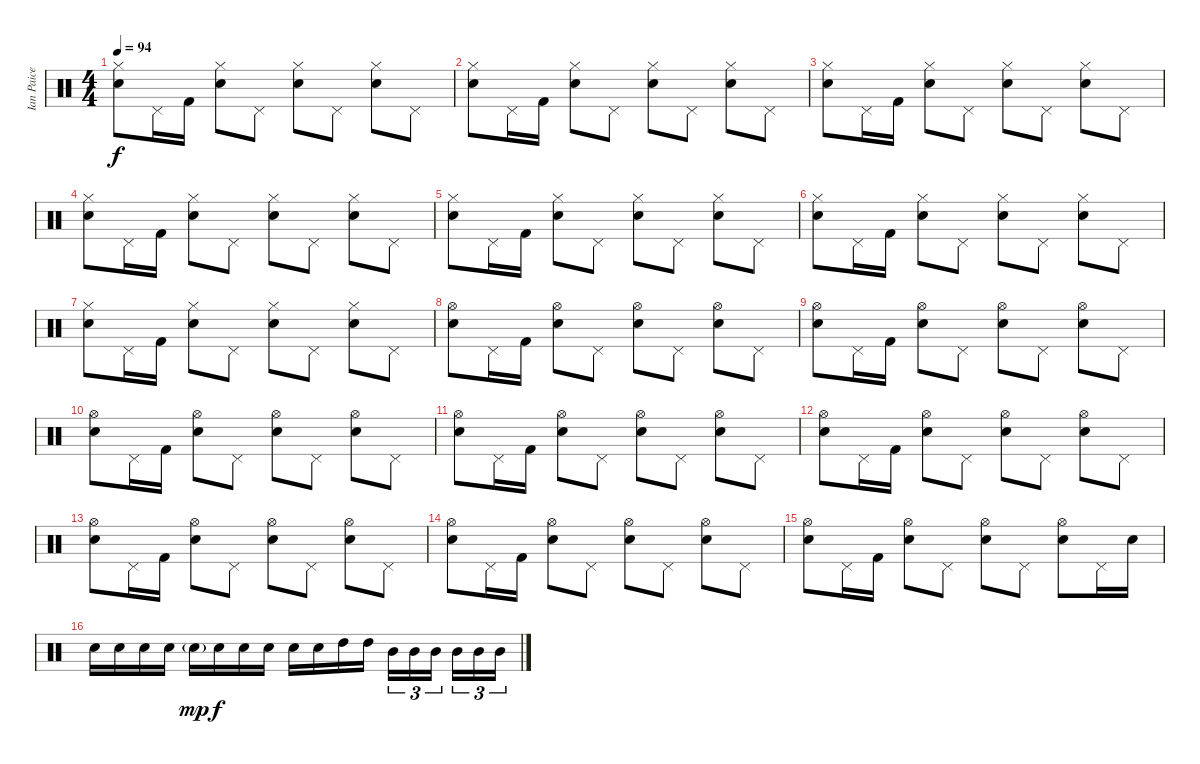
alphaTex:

\track ("Ian Paice (Drums)" "Ian Paice ") {instrument percussion}
\staff {score}
\articulation defaults
\ts (4 4)
\tempo 94
\clef neutral
\ks c
("Hi-Hat (closed)" "Electric Snare (hit)").8{dy f} "Pedal Hi-Hat (hit)".16 "Kick (hit) 2".16 ("Hi-Hat (closed)" "Electric Snare (hit)").8 "Pedal Hi-Hat (hit)".8 ("Hi-Hat (closed)" "Electric Snare (hit)").8 "Pedal Hi-Hat (hit)".8 ("Hi-Hat (closed)" "Electric Snare (hit)").8 "Pedal Hi-Hat (hit)".8 |
("Hi-Hat (closed)" "Electric Snare (hit)").8 "Pedal Hi-Hat (hit)".16 "Kick (hit) 2".16 ("Hi-Hat (closed)" "Electric Snare (hit)").8 "Pedal Hi-Hat (hit)".8 ("Hi-Hat (closed)" "Electric Snare (hit)").8 "Pedal Hi-Hat (hit)".8 ("Hi-Hat (closed)" "Electric Snare (hit)").8 "Pedal Hi-Hat (hit)".8 |
("Hi-Hat (closed)" "Electric Snare (hit)").8 "Pedal Hi-Hat (hit)".16 "Kick (hit) 2".16 ("Hi-Hat (closed)" "Electric Snare (hit)").8 "Pedal Hi-Hat (hit)".8 ("Hi-Hat (closed)" "Electric Snare (hit)").8 "Pedal Hi-Hat (hit)".8 ("Hi-Hat (closed)" "Electric Snare (hit)").8 "Pedal Hi-Hat (hit)".8 |
("Hi-Hat (closed)" "Electric Snare (hit)").8 "Pedal Hi-Hat (hit)".16 "Kick (hit) 2".16 ("Hi-Hat (closed)" "Electric Snare (hit)").8 "Pedal Hi-Hat (hit)".8 ("Hi-Hat (closed)" "Electric Snare (hit)").8 "Pedal Hi-Hat (hit)".8 ("Hi-Hat (closed)" "Electric Snare (hit)").8 "Pedal Hi-Hat (hit)".8 |
("Hi-Hat (closed)" "Electric Snare (hit)").8 "Pedal Hi-Hat (hit)".16 "Kick (hit) 2".16 ("Hi-Hat (closed)" "Electric Snare (hit)").8 "Pedal Hi-Hat (hit)".8 ("Hi-Hat (closed)" "Electric Snare (hit)").8 "Pedal Hi-Hat (hit)".8 ("Hi-Hat (closed)" "Electric Snare (hit)").8 "Pedal Hi-Hat (hit)".8 |
("Hi-Hat (closed)" "Electric Snare (hit)").8 "Pedal Hi-Hat (hit)".16 "Kick (hit) 2".16 ("Hi-Hat (closed)" "Electric Snare (hit)").8 "Pedal Hi-Hat (hit)".8 ("Hi-Hat (closed)" "Electric Snare (hit)").8 "Pedal Hi-Hat (hit)".8 ("Hi-Hat (closed)" "Electric Snare (hit)").8 "Pedal Hi-Hat (hit)".8 |
("Hi-Hat (closed)" "Electric Snare (hit)").8 "Pedal Hi-Hat (hit)".16 "Kick (hit) 2".16 ("Hi-Hat (closed)" "Electric Snare (hit)").8 "Pedal Hi-Hat (hit)".8 ("Hi-Hat (closed)" "Electric Snare (hit)").8 "Pedal Hi-Hat (hit)".8 ("Hi-Hat (closed)" "Electric Snare (hit)").8 "Pedal Hi-Hat (hit)".8 |
("Hi-Hat (open)" "Electric Snare (hit)").8 "Pedal Hi-Hat (hit)".16 "Kick (hit) 2".16 ("Hi-Hat (open)" "Electric Snare (hit)").8 "Pedal Hi-Hat (hit)".8 ("Hi-Hat (open)" "Electric Snare (hit)").8 "Pedal Hi-Hat (hit)".8 ("Hi-Hat (open)" "Electric Snare (hit)").8 "Pedal Hi-Hat (hit)".8 |
("Hi-Hat (open)" "Electric Snare (hit)").8 "Pedal Hi-Hat (hit)".16 "Kick (hit) 2".16 ("Hi-Hat (open)" "Electric Snare (hit)").8 "Pedal Hi-Hat (hit)".8 ("Hi-Hat (open)" "Electric Snare (hit)").8 "Pedal Hi-Hat (hit)".8 ("Hi-Hat (open)" "Electric Snare (hit)").8 "Pedal Hi-Hat (hit)".8 |
("Hi-Hat (open)" "Electric Snare (hit)").8 "Pedal Hi-Hat (hit)".16 "Kick (hit) 2".16 ("Hi-Hat (open)" "Electric Snare (hit)").8 "Pedal Hi-Hat (hit)".8 ("Hi-Hat (open)" "Electric Snare (hit)").8 "Pedal Hi-Hat (hit)".8 ("Hi-Hat (open)" "Electric Snare (hit)").8 "Pedal Hi-Hat (hit)".8 |
("Hi-Hat (open)" "Electric Snare (hit)").8 "Pedal Hi-Hat (hit)".16 "Kick (hit) 2".16 ("Hi-Hat (open)" "Electric Snare (hit)").8 "Pedal Hi-Hat (hit)".8 ("Hi-Hat (open)" "Electric Snare (hit)").8 "Pedal Hi-Hat (hit)".8 ("Hi-Hat (open)" "Electric Snare (hit)").8 "Pedal Hi-Hat (hit)".8 |
("Hi-Hat (open)" "Electric Snare (hit)").8 "Pedal Hi-Hat (hit)".16 "Kick (hit) 2".16 ("Hi-Hat (open)" "Electric Snare (hit)").8 "Pedal Hi-Hat (hit)".8 ("Hi-Hat (open)" "Electric Snare (hit)").8 "Pedal Hi-Hat (hit)".8 ("Hi-Hat (open)" "Electric Snare (hit)").8 "Pedal Hi-Hat (hit)".8 |
("Hi-Hat (open)" "Electric Snare (hit)").8 "Pedal Hi-Hat (hit)".16 "Kick (hit) 2".16 ("Hi-Hat (open)" "Electric Snare (hit)").8 "Pedal Hi-Hat (hit)".8 ("Hi-Hat (open)" "Electric Snare (hit)").8 "Pedal Hi-Hat (hit)".8 ("Hi-Hat (open)" "Electric Snare (hit)").8 "Pedal Hi-Hat (hit)".8 |
("Hi-Hat (open)" "Electric Snare (hit)").8 "Pedal Hi-Hat (hit)".16 "Kick (hit) 2".16 ("Hi-Hat (open)" "Electric Snare (hit)").8 "Pedal Hi-Hat (hit)".8 ("Hi-Hat (open)" "Electric Snare (hit)").8 "Pedal Hi-Hat (hit)".8 ("Hi-Hat (open)" "Electric Snare (hit)").8 "Pedal Hi-Hat (hit)".8 |
("Hi-Hat (open)" "Electric Snare (hit)").8 "Pedal Hi-Hat (hit)".16 "Kick (hit) 2".16 ("Hi-Hat (open)" "Electric Snare (hit)").8 "Pedal Hi-Hat (hit)".8 ("Hi-Hat (open)" "Electric Snare (hit)").8 "Pedal Hi-Hat (hit)".8 ("Hi-Hat (open)" "Electric Snare (hit)").8 "Pedal Hi-Hat (hit)".16 "Electric Snare (hit)".16 |
"Electric Snare (hit)".16 "Electric Snare (hit)".16 "Electric Snare (hit)".16 "Electric Snare (hit)".16 "Electric Snare (hit)"{g}.16{dy mp} "Electric Snare (hit)".16{dy f} "Electric Snare (hit)".16 "Electric Snare (hit)".16 "Electric Snare (hit)".16 "Electric Snare (hit)".16 "High Tom (hit)".16 "High Tom (hit)".16 "Mid Tom (hit)".16{tu (3 2)} "Mid Tom (hit)".16{tu (3 2)} "Mid Tom (hit)".16{tu (3 2)} "Mid Tom (hit)".16{tu (3 2)} "Mid Tom (hit)".16{tu (3 2)} "Mid Tom (hit)".16{tu (3 2)}
